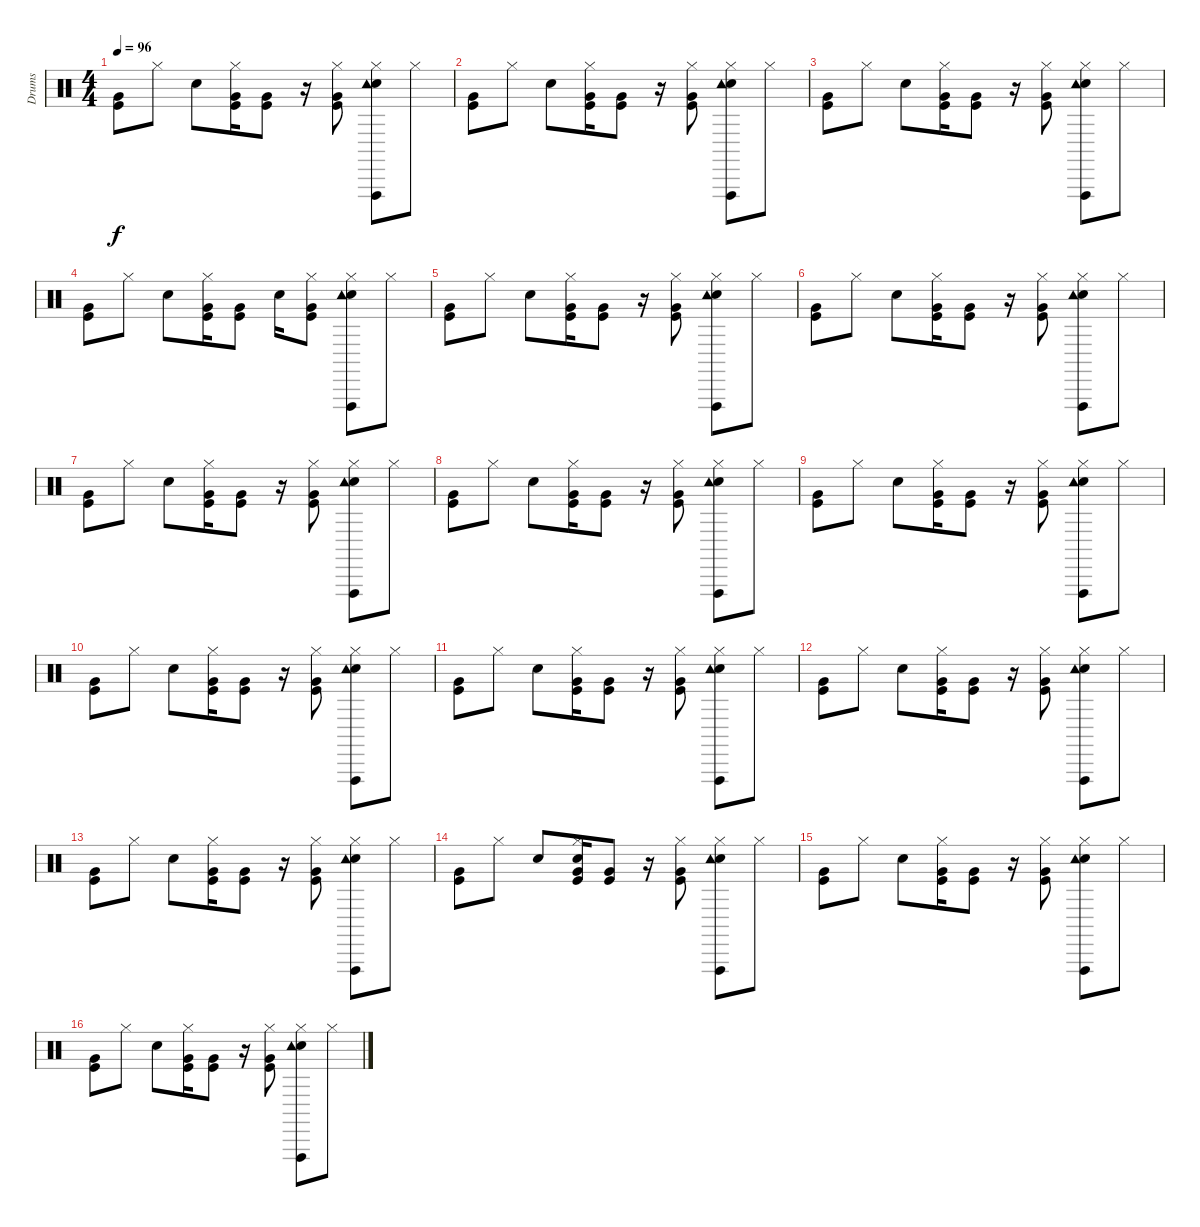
\track ("Drums" "Drums") {instrument percussion}
\staff {score}
\articulation defaults
\ts (4 4)
\tempo 96
\clef neutral
\ks c
("Kick (hit)" "Very Low Tom (hit)").8{dy f} "Hi-Hat (closed)".8 "Snare (hit) 2".8 ("Hi-Hat (closed)" "Kick (hit)" "Very Low Tom (hit)").16 ("Kick (hit)" "Very Low Tom (hit)").8 r.16 ("Hi-Hat (closed)" "Kick (hit)" "Very Low Tom (hit)").8 ("Hi-Hat (closed)" "Vibraslap (hit)" "Snare (hit) 2" "Tambourine (hit)").8 "Hi-Hat (closed)".8 |
("Kick (hit)" "Very Low Tom (hit)").8 "Hi-Hat (closed)".8 "Snare (hit) 2".8 ("Hi-Hat (closed)" "Kick (hit)" "Very Low Tom (hit)").16 ("Kick (hit)" "Very Low Tom (hit)").8 r.16 ("Hi-Hat (closed)" "Kick (hit)" "Very Low Tom (hit)").8 ("Hi-Hat (closed)" "Vibraslap (hit)" "Snare (hit) 2" "Tambourine (hit)").8 "Hi-Hat (closed)".8 |
("Kick (hit)" "Very Low Tom (hit)").8 "Hi-Hat (closed)".8 "Snare (hit) 2".8 ("Hi-Hat (closed)" "Kick (hit)" "Very Low Tom (hit)").16 ("Kick (hit)" "Very Low Tom (hit)").8 r.16 ("Hi-Hat (closed)" "Kick (hit)" "Very Low Tom (hit)").8 ("Hi-Hat (closed)" "Vibraslap (hit)" "Snare (hit) 2" "Tambourine (hit)").8 "Hi-Hat (closed)".8 |
("Kick (hit)" "Very Low Tom (hit)").8 "Hi-Hat (closed)".8 "Snare (hit) 2".8 ("Hi-Hat (closed)" "Kick (hit)" "Very Low Tom (hit)").16 ("Kick (hit)" "Very Low Tom (hit)").8 "Snare (hit) 2".16 ("Hi-Hat (closed)" "Kick (hit)" "Very Low Tom (hit)").8 ("Hi-Hat (closed)" "Vibraslap (hit)" "Snare (hit) 2" "Tambourine (hit)").8 "Hi-Hat (closed)".8 |
("Kick (hit)" "Very Low Tom (hit)").8 "Hi-Hat (closed)".8 "Snare (hit) 2".8 ("Hi-Hat (closed)" "Kick (hit)" "Very Low Tom (hit)").16 ("Kick (hit)" "Very Low Tom (hit)").8 r.16 ("Hi-Hat (closed)" "Kick (hit)" "Very Low Tom (hit)").8 ("Hi-Hat (closed)" "Vibraslap (hit)" "Snare (hit) 2" "Tambourine (hit)").8 "Hi-Hat (closed)".8 |
("Kick (hit)" "Very Low Tom (hit)").8 "Hi-Hat (closed)".8 "Snare (hit) 2".8 ("Hi-Hat (closed)" "Kick (hit)" "Very Low Tom (hit)").16 ("Kick (hit)" "Very Low Tom (hit)").8 r.16 ("Hi-Hat (closed)" "Kick (hit)" "Very Low Tom (hit)").8 ("Hi-Hat (closed)" "Vibraslap (hit)" "Snare (hit) 2" "Tambourine (hit)").8 "Hi-Hat (closed)".8 |
("Kick (hit)" "Very Low Tom (hit)").8 "Hi-Hat (closed)".8 "Snare (hit) 2".8 ("Hi-Hat (closed)" "Kick (hit)" "Very Low Tom (hit)").16 ("Kick (hit)" "Very Low Tom (hit)").8 r.16 ("Hi-Hat (closed)" "Kick (hit)" "Very Low Tom (hit)").8 ("Hi-Hat (closed)" "Vibraslap (hit)" "Snare (hit) 2" "Tambourine (hit)").8 "Hi-Hat (closed)".8 |
("Kick (hit)" "Very Low Tom (hit)").8 "Hi-Hat (closed)".8 "Snare (hit) 2".8 ("Hi-Hat (closed)" "Kick (hit)" "Very Low Tom (hit)").16 ("Kick (hit)" "Very Low Tom (hit)").8 r.16 ("Hi-Hat (closed)" "Kick (hit)" "Very Low Tom (hit)").8 ("Hi-Hat (closed)" "Vibraslap (hit)" "Snare (hit) 2" "Tambourine (hit)").8 "Hi-Hat (closed)".8 |
("Kick (hit)" "Very Low Tom (hit)").8 "Hi-Hat (closed)".8 "Snare (hit) 2".8 ("Hi-Hat (closed)" "Kick (hit)" "Very Low Tom (hit)").16 ("Kick (hit)" "Very Low Tom (hit)").8 r.16 ("Hi-Hat (closed)" "Kick (hit)" "Very Low Tom (hit)").8 ("Hi-Hat (closed)" "Vibraslap (hit)" "Snare (hit) 2" "Tambourine (hit)").8 "Hi-Hat (closed)".8 |
("Kick (hit)" "Very Low Tom (hit)").8 "Hi-Hat (closed)".8 "Snare (hit) 2".8 ("Hi-Hat (closed)" "Kick (hit)" "Very Low Tom (hit)").16 ("Kick (hit)" "Very Low Tom (hit)").8 r.16 ("Hi-Hat (closed)" "Kick (hit)" "Very Low Tom (hit)").8 ("Hi-Hat (closed)" "Vibraslap (hit)" "Snare (hit) 2" "Tambourine (hit)").8 "Hi-Hat (closed)".8 |
("Kick (hit)" "Very Low Tom (hit)").8 "Hi-Hat (closed)".8 "Snare (hit) 2".8 ("Hi-Hat (closed)" "Kick (hit)" "Very Low Tom (hit)").16 ("Kick (hit)" "Very Low Tom (hit)").8 r.16 ("Hi-Hat (closed)" "Kick (hit)" "Very Low Tom (hit)").8 ("Hi-Hat (closed)" "Vibraslap (hit)" "Snare (hit) 2" "Tambourine (hit)").8 "Hi-Hat (closed)".8 |
("Kick (hit)" "Very Low Tom (hit)").8 "Hi-Hat (closed)".8 "Snare (hit) 2".8 ("Hi-Hat (closed)" "Kick (hit)" "Very Low Tom (hit)").16 ("Kick (hit)" "Very Low Tom (hit)").8 r.16 ("Hi-Hat (closed)" "Kick (hit)" "Very Low Tom (hit)").8 ("Hi-Hat (closed)" "Vibraslap (hit)" "Snare (hit) 2" "Tambourine (hit)").8 "Hi-Hat (closed)".8 |
("Kick (hit)" "Very Low Tom (hit)").8 "Hi-Hat (closed)".8 "Snare (hit) 2".8 ("Hi-Hat (closed)" "Kick (hit)" "Very Low Tom (hit)").16 ("Kick (hit)" "Very Low Tom (hit)").8 r.16 ("Hi-Hat (closed)" "Kick (hit)" "Very Low Tom (hit)").8 ("Hi-Hat (closed)" "Vibraslap (hit)" "Snare (hit) 2" "Tambourine (hit)").8 "Hi-Hat (closed)".8 |
("Kick (hit)" "Very Low Tom (hit)").8 "Hi-Hat (closed)".8 "Snare (hit) 2".8 ("Hi-Hat (closed)" "Snare (hit) 2" "Kick (hit)" "Very Low Tom (hit)").16 ("Kick (hit)" "Very Low Tom (hit)").8 r.16 ("Hi-Hat (closed)" "Kick (hit)" "Very Low Tom (hit)").8 ("Hi-Hat (closed)" "Vibraslap (hit)" "Snare (hit) 2" "Tambourine (hit)").8 "Hi-Hat (closed)".8 |
("Kick (hit)" "Very Low Tom (hit)").8 "Hi-Hat (closed)".8 "Snare (hit) 2".8 ("Hi-Hat (closed)" "Kick (hit)" "Very Low Tom (hit)").16 ("Kick (hit)" "Very Low Tom (hit)").8 r.16 ("Hi-Hat (closed)" "Kick (hit)" "Very Low Tom (hit)").8 ("Hi-Hat (closed)" "Vibraslap (hit)" "Snare (hit) 2" "Tambourine (hit)").8 "Hi-Hat (closed)".8 |
("Kick (hit)" "Very Low Tom (hit)").8 "Hi-Hat (closed)".8 "Snare (hit) 2".8 ("Hi-Hat (closed)" "Kick (hit)" "Very Low Tom (hit)").16 ("Kick (hit)" "Very Low Tom (hit)").8 r.16 ("Hi-Hat (closed)" "Kick (hit)" "Very Low Tom (hit)").8 ("Hi-Hat (closed)" "Vibraslap (hit)" "Snare (hit) 2" "Tambourine (hit)").8 "Hi-Hat (closed)".8
